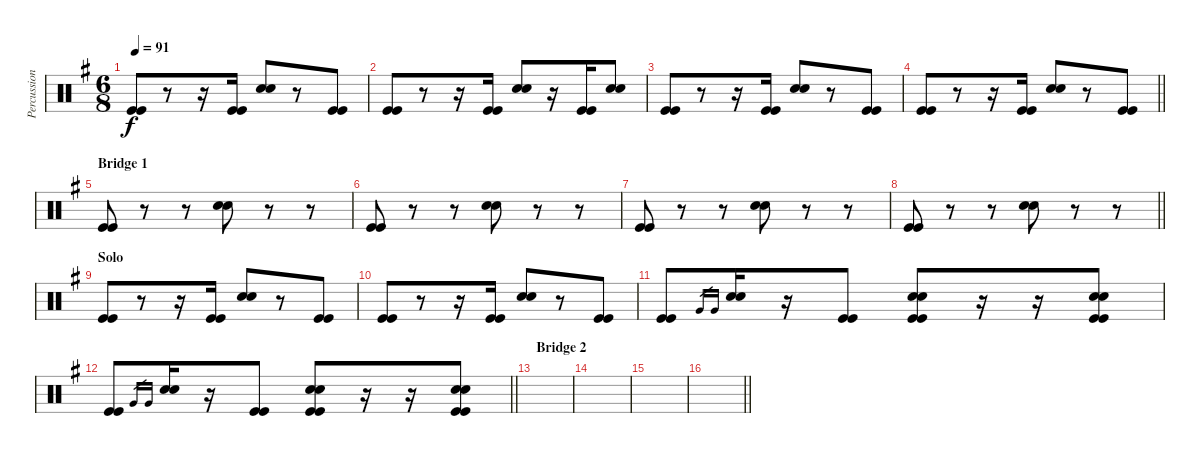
\track ("Percussion (For Volume)" "Percussion") {instrument percussion}
\staff {score}
\articulation defaults
\ts (6 8)
\tempo 91
\clef neutral
\ks eminor
("Kick (hit)" "Kick (hit)").8{dy f} r.8 r.16 ("Kick (hit)" "Kick (hit)").16 ("Electric Snare (hit)" "Electric Snare (hit)").8 r.8 ("Kick (hit)" "Kick (hit)").8 |
("Kick (hit)" "Kick (hit)").8 r.8 r.16 ("Kick (hit)" "Kick (hit)").16 ("Electric Snare (hit)" "Electric Snare (hit)").8 r.16 ("Kick (hit)" "Kick (hit)").16 ("Electric Snare (hit)" "Electric Snare (hit)").8 |
("Kick (hit)" "Kick (hit)").8 r.8 r.16 ("Kick (hit)" "Kick (hit)").16 ("Electric Snare (hit)" "Electric Snare (hit)").8 r.8 ("Kick (hit)" "Kick (hit)").8 |
\barLineRight lightlight
("Kick (hit)" "Kick (hit)").8 r.8 r.16 ("Kick (hit)" "Kick (hit)").16 ("Electric Snare (hit)" "Electric Snare (hit)").8 r.8 ("Kick (hit)" "Kick (hit)").8 |
\section ("" "Bridge 1")
("Kick (hit)" "Kick (hit)").8 r.8 r.8 ("Electric Snare (hit)" "Electric Snare (hit)").8 r.8 r.8 |
("Kick (hit)" "Kick (hit)").8 r.8 r.8 ("Electric Snare (hit)" "Electric Snare (hit)").8 r.8 r.8 |
("Kick (hit)" "Kick (hit)").8 r.8 r.8 ("Electric Snare (hit)" "Electric Snare (hit)").8 r.8 r.8 |
\barLineRight lightlight
("Kick (hit)" "Kick (hit)").8 r.8 r.8 ("Electric Snare (hit)" "Electric Snare (hit)").8 r.8 r.8 |
\section ("" "Solo")
("Kick (hit)" "Kick (hit)").8 r.8 r.16 ("Kick (hit)" "Kick (hit)").16 ("Electric Snare (hit)" "Electric Snare (hit)").8 r.8 ("Kick (hit)" "Kick (hit)").8 |
("Kick (hit)" "Kick (hit)").8 r.8 r.16 ("Kick (hit)" "Kick (hit)").16 ("Electric Snare (hit)" "Electric Snare (hit)").8 r.8 ("Kick (hit)" "Kick (hit)").8 |
("Kick (hit)" "Kick (hit)").8 "Very Low Tom (hit)".16{gr} "Very Low Tom (hit)".16{gr} ("Electric Snare (hit)" "Electric Snare (hit)").16 r.16 ("Kick (hit)" "Kick (hit)").8 ("Electric Snare (hit)" "Electric Snare (hit)" "Kick (hit)" "Kick (hit)").8 r.16 r.16 ("Electric Snare (hit)" "Electric Snare (hit)" "Kick (hit)" "Kick (hit)").8 |
\barLineRight lightlight
("Kick (hit)" "Kick (hit)").8 "Very Low Tom (hit)".16{gr} "Very Low Tom (hit)".16{gr} ("Electric Snare (hit)" "Electric Snare (hit)").16 r.16 ("Kick (hit)" "Kick (hit)").8 ("Electric Snare (hit)" "Electric Snare (hit)" "Kick (hit)" "Kick (hit)").8 r.16 r.16 ("Electric Snare (hit)" "Electric Snare (hit)" "Kick (hit)" "Kick (hit)").8 |
\section ("" "Bridge 2")
|
|
|
\barLineRight lightlight
